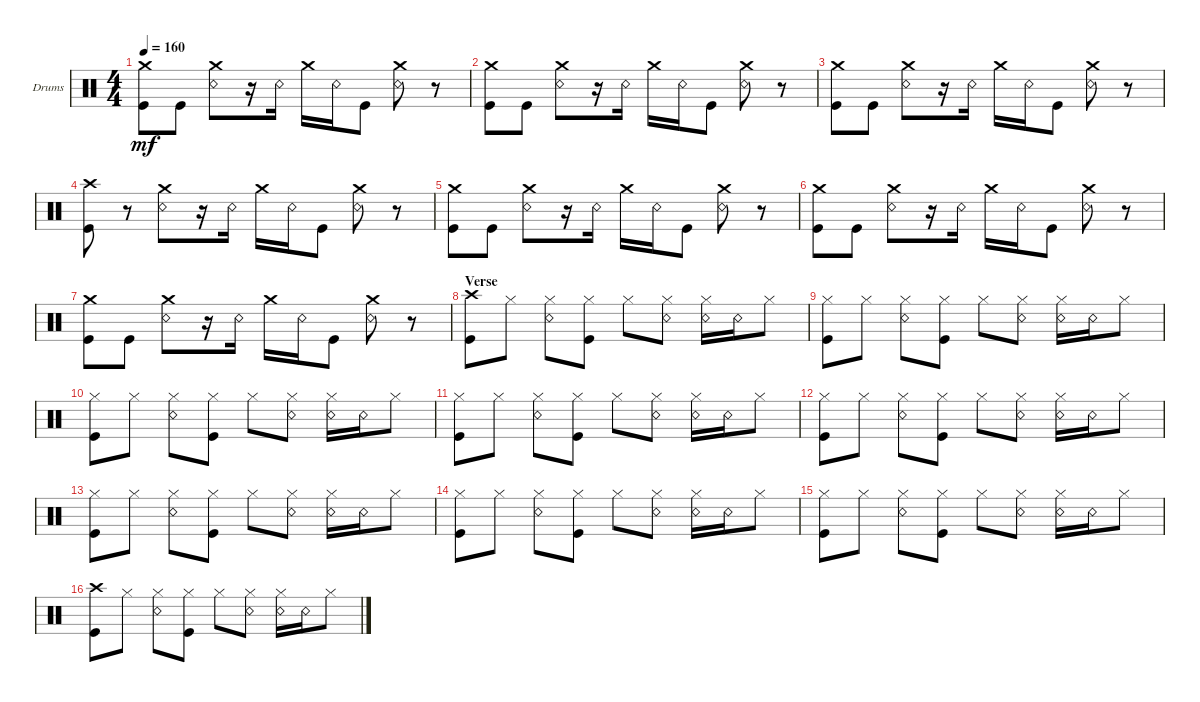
\defaultSystemsLayout 4
\bracketExtendMode groupsimilarinstruments
\firstSystemTrackNameOrientation horizontal
\otherSystemsTrackNameOrientation horizontal
\track ("Drumkit" "Drums") {instrument percussion}
\staff {score}
\articulation defaults
\ts (4 4)
\tempo 160
\clef neutral
\ks c
("Kick (hit)" "Crash medium (hit)").8{dy mf} "Kick (hit)".8 ("Snare (rim shot)" "Crash medium (hit)").8 r.16 "Snare (rim shot)".16 "Crash medium (hit)".16 "Snare (rim shot)".16 "Kick (hit)".8 ("Snare (rim shot)" "Crash medium (hit)").8 r.8 |
("Kick (hit)" "Crash medium (hit)").8 "Kick (hit)".8 ("Snare (rim shot)" "Crash medium (hit)").8 r.16 "Snare (rim shot)".16 "Crash medium (hit)".16 "Snare (rim shot)".16 "Kick (hit)".8 ("Snare (rim shot)" "Crash medium (hit)").8 r.8 |
("Kick (hit)" "Crash medium (hit)").8 "Kick (hit)".8 ("Snare (rim shot)" "Crash medium (hit)").8 r.16 "Snare (rim shot)".16 "Crash medium (hit)".16 "Snare (rim shot)".16 "Kick (hit)".8 ("Snare (rim shot)" "Crash medium (hit)").8 r.8 |
("Kick (hit)" "Crash high (hit)").8 r.8 ("Snare (rim shot)" "Crash medium (hit)").8 r.16 "Snare (rim shot)".16 "Crash medium (hit)".16 "Snare (rim shot)".16 "Kick (hit)".8 ("Snare (rim shot)" "Crash medium (hit)").8 r.8 |
("Kick (hit)" "Crash medium (hit)").8 "Kick (hit)".8 ("Snare (rim shot)" "Crash medium (hit)").8 r.16 "Snare (rim shot)".16 "Crash medium (hit)".16 "Snare (rim shot)".16 "Kick (hit)".8 ("Snare (rim shot)" "Crash medium (hit)").8 r.8 |
("Kick (hit)" "Crash medium (hit)").8 "Kick (hit)".8 ("Snare (rim shot)" "Crash medium (hit)").8 r.16 "Snare (rim shot)".16 "Crash medium (hit)".16 "Snare (rim shot)".16 "Kick (hit)".8 ("Snare (rim shot)" "Crash medium (hit)").8 r.8 |
("Kick (hit)" "Crash medium (hit)").8 "Kick (hit)".8 ("Snare (rim shot)" "Crash medium (hit)").8 r.16 "Snare (rim shot)".16 "Crash medium (hit)".16 "Snare (rim shot)".16 "Kick (hit)".8 ("Snare (rim shot)" "Crash medium (hit)").8 r.8 |
\section ("" "Verse")
("Kick (hit)" "Crash high (hit)").8 "Hi-Hat (closed)".8 ("Snare (rim shot)" "Hi-Hat (closed)").8 ("Hi-Hat (closed)" "Kick (hit)").8 "Hi-Hat (closed)".8 ("Snare (rim shot)" "Hi-Hat (closed)").8 ("Snare (rim shot)" "Hi-Hat (closed)").16 "Snare (rim shot)".16 "Hi-Hat (closed)".8 |
("Kick (hit)" "Hi-Hat (closed)").8 "Hi-Hat (closed)".8 ("Snare (rim shot)" "Hi-Hat (closed)").8 ("Hi-Hat (closed)" "Kick (hit)").8 "Hi-Hat (closed)".8 ("Snare (rim shot)" "Hi-Hat (closed)").8 ("Snare (rim shot)" "Hi-Hat (closed)").16 "Snare (rim shot)".16 "Hi-Hat (closed)".8 |
("Kick (hit)" "Hi-Hat (closed)").8 "Hi-Hat (closed)".8 ("Snare (rim shot)" "Hi-Hat (closed)").8 ("Hi-Hat (closed)" "Kick (hit)").8 "Hi-Hat (closed)".8 ("Snare (rim shot)" "Hi-Hat (closed)").8 ("Snare (rim shot)" "Hi-Hat (closed)").16 "Snare (rim shot)".16 "Hi-Hat (closed)".8 |
("Kick (hit)" "Hi-Hat (closed)").8 "Hi-Hat (closed)".8 ("Snare (rim shot)" "Hi-Hat (closed)").8 ("Hi-Hat (closed)" "Kick (hit)").8 "Hi-Hat (closed)".8 ("Snare (rim shot)" "Hi-Hat (closed)").8 ("Snare (rim shot)" "Hi-Hat (closed)").16 "Snare (rim shot)".16 "Hi-Hat (closed)".8 |
("Kick (hit)" "Hi-Hat (closed)").8 "Hi-Hat (closed)".8 ("Snare (rim shot)" "Hi-Hat (closed)").8 ("Hi-Hat (closed)" "Kick (hit)").8 "Hi-Hat (closed)".8 ("Snare (rim shot)" "Hi-Hat (closed)").8 ("Snare (rim shot)" "Hi-Hat (closed)").16 "Snare (rim shot)".16 "Hi-Hat (closed)".8 |
("Kick (hit)" "Hi-Hat (closed)").8 "Hi-Hat (closed)".8 ("Snare (rim shot)" "Hi-Hat (closed)").8 ("Hi-Hat (closed)" "Kick (hit)").8 "Hi-Hat (closed)".8 ("Snare (rim shot)" "Hi-Hat (closed)").8 ("Snare (rim shot)" "Hi-Hat (closed)").16 "Snare (rim shot)".16 "Hi-Hat (closed)".8 |
("Kick (hit)" "Hi-Hat (closed)").8 "Hi-Hat (closed)".8 ("Snare (rim shot)" "Hi-Hat (closed)").8 ("Hi-Hat (closed)" "Kick (hit)").8 "Hi-Hat (closed)".8 ("Snare (rim shot)" "Hi-Hat (closed)").8 ("Snare (rim shot)" "Hi-Hat (closed)").16 "Snare (rim shot)".16 "Hi-Hat (closed)".8 |
("Kick (hit)" "Hi-Hat (closed)").8 "Hi-Hat (closed)".8 ("Snare (rim shot)" "Hi-Hat (closed)").8 ("Hi-Hat (closed)" "Kick (hit)").8 "Hi-Hat (closed)".8 ("Snare (rim shot)" "Hi-Hat (closed)").8 ("Snare (rim shot)" "Hi-Hat (closed)").16 "Snare (rim shot)".16 "Hi-Hat (closed)".8 |
("Kick (hit)" "Crash high (hit)").8 "Hi-Hat (closed)".8 ("Snare (rim shot)" "Hi-Hat (closed)").8 ("Hi-Hat (closed)" "Kick (hit)").8 "Hi-Hat (closed)".8 ("Snare (rim shot)" "Hi-Hat (closed)").8 ("Snare (rim shot)" "Hi-Hat (closed)").16 "Snare (rim shot)".16 "Hi-Hat (closed)".8
